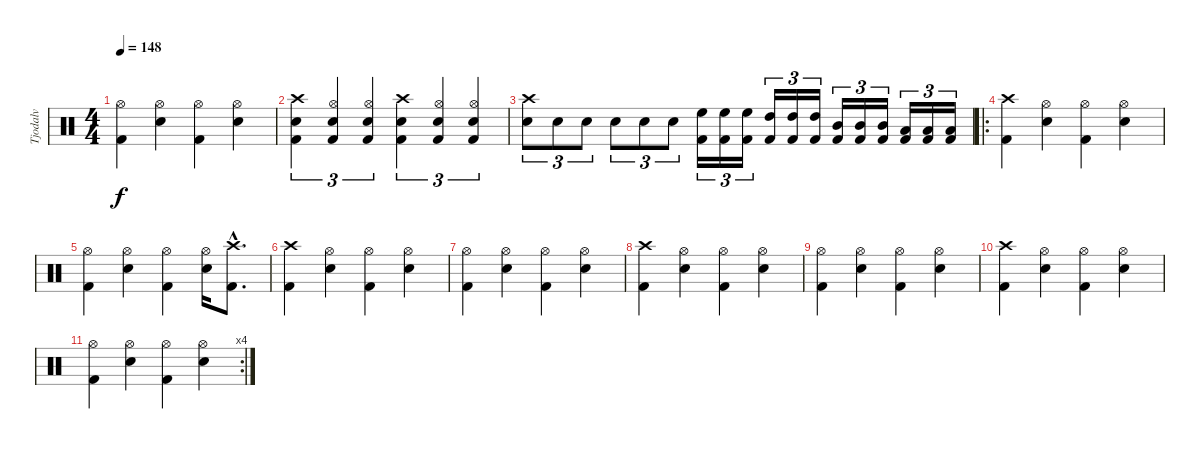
\track ("Tjodalv" "Tjodalv") {instrument percussion}
\staff {score}
\articulation defaults
\ts (4 4)
\tempo 148
\clef neutral
\ks c
("Kick (hit) 2" "Hi-Hat (open)").4{dy f} ("Snare (hit) 2" "Hi-Hat (open)").4 ("Kick (hit) 2" "Hi-Hat (open)").4 ("Snare (hit) 2" "Hi-Hat (open)").4 |
("Kick (hit) 2" "Snare (hit) 2" "Crash high (hit)").4{tu (3 2)} ("Kick (hit) 2" "Snare (hit) 2" "Hi-Hat (open)").4{tu (3 2)} ("Kick (hit) 2" "Snare (hit) 2" "Hi-Hat (open)").4{tu (3 2)} ("Kick (hit) 2" "Snare (hit) 2" "Crash high (hit)").4{tu (3 2)} ("Kick (hit) 2" "Snare (hit) 2" "Hi-Hat (open)").4{tu (3 2)} ("Kick (hit) 2" "Snare (hit) 2" "Hi-Hat (open)").4{tu (3 2)} |
("Snare (hit) 2" "Crash high (hit)").8{tu (3 2)} "Snare (hit) 2".8{tu (3 2)} "Snare (hit) 2".8{tu (3 2)} "Snare (hit) 2".8{tu (3 2)} "Snare (hit) 2".8{tu (3 2)} "Snare (hit) 2".8{tu (3 2)} ("Kick (hit) 2" "High Floor Tom (hit)").16{tu (3 2)} ("Kick (hit) 2" "High Floor Tom (hit)").16{tu (3 2)} ("Kick (hit) 2" "High Floor Tom (hit)").16{tu (3 2)} ("Kick (hit) 2" "High Tom (hit)").16{tu (3 2)} ("Kick (hit) 2" "High Tom (hit)").16{tu (3 2)} ("Kick (hit) 2" "High Tom (hit)").16{tu (3 2)} ("Kick (hit) 2" "Mid Tom (hit)").16{tu (3 2)} ("Kick (hit) 2" "Mid Tom (hit)").16{tu (3 2)} ("Kick (hit) 2" "Mid Tom (hit)").16{tu (3 2)} ("Kick (hit) 2" "Low Tom (hit)").16{tu (3 2)} ("Kick (hit) 2" "Low Tom (hit)").16{tu (3 2)} ("Kick (hit) 2" "Low Tom (hit)").16{tu (3 2)} |
\ro
("Kick (hit) 2" "Crash high (hit)").4 ("Snare (hit) 2" "Hi-Hat (open)").4 ("Kick (hit) 2" "Hi-Hat (open)").4 ("Snare (hit) 2" "Hi-Hat (open)").4 |
("Kick (hit) 2" "Hi-Hat (open)").4 ("Snare (hit) 2" "Hi-Hat (open)").4 ("Kick (hit) 2" "Hi-Hat (open)").4 ("Snare (hit) 2" "Hi-Hat (open)").16 ("Kick (hit) 2"{hac} "Crash high (hit)"{hac}).8{d} |
("Kick (hit) 2" "Crash high (hit)").4 ("Snare (hit) 2" "Hi-Hat (open)").4 ("Kick (hit) 2" "Hi-Hat (open)").4 ("Snare (hit) 2" "Hi-Hat (open)").4 |
("Kick (hit) 2" "Hi-Hat (open)").4 ("Snare (hit) 2" "Hi-Hat (open)").4 ("Kick (hit) 2" "Hi-Hat (open)").4 ("Snare (hit) 2" "Hi-Hat (open)").4 |
("Kick (hit) 2" "Crash high (hit)").4 ("Snare (hit) 2" "Hi-Hat (open)").4 ("Kick (hit) 2" "Hi-Hat (open)").4 ("Snare (hit) 2" "Hi-Hat (open)").4 |
("Kick (hit) 2" "Hi-Hat (open)").4 ("Snare (hit) 2" "Hi-Hat (open)").4 ("Kick (hit) 2" "Hi-Hat (open)").4 ("Snare (hit) 2" "Hi-Hat (open)").4 |
("Kick (hit) 2" "Crash high (hit)").4 ("Snare (hit) 2" "Hi-Hat (open)").4 ("Kick (hit) 2" "Hi-Hat (open)").4 ("Snare (hit) 2" "Hi-Hat (open)").4 |
\rc 4
("Kick (hit) 2" "Hi-Hat (open)").4 ("Snare (hit) 2" "Hi-Hat (open)").4 ("Kick (hit) 2" "Hi-Hat (open)").4 ("Snare (hit) 2" "Hi-Hat (open)").4
